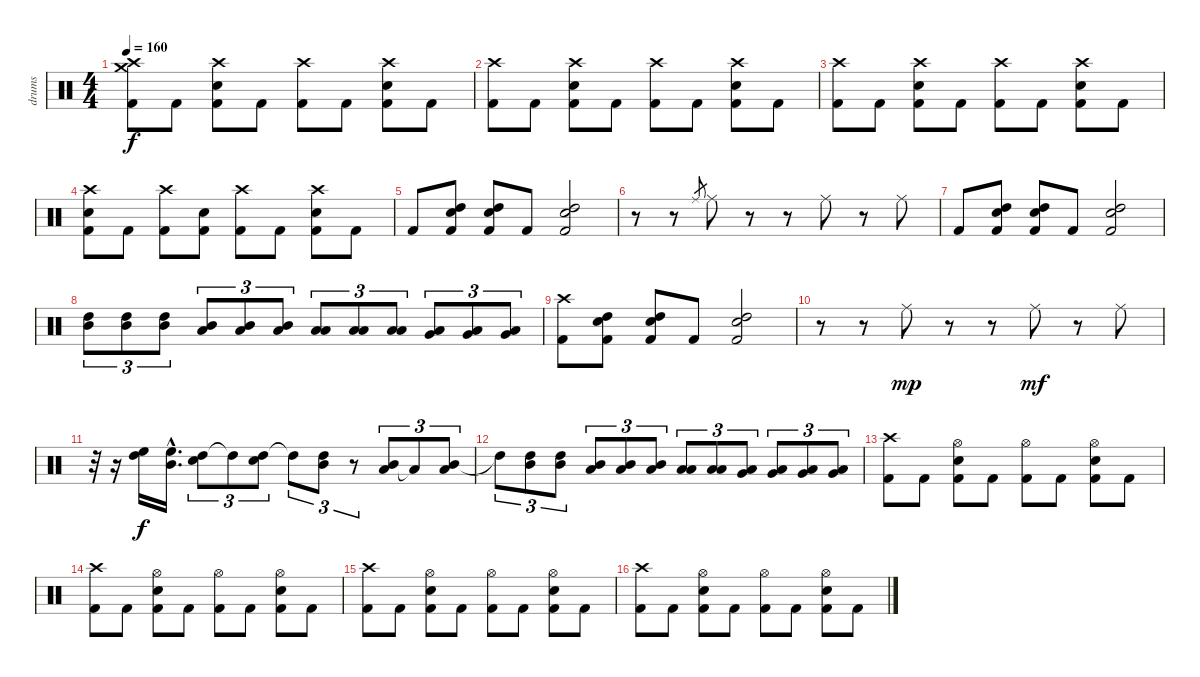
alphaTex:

\track ("drums" "drums") {instrument percussion}
\staff {score}
\articulation defaults
\ts (4 4)
\tempo 160
\clef neutral
\ks c
("Crash high (hit)" "Crash medium (hit)" "Kick (hit) 2").8{dy f} "Kick (hit) 2".8 ("Crash high (hit)" "Electric Snare (hit)" "Kick (hit) 2").8 "Kick (hit) 2".8 ("Crash high (hit)" "Kick (hit) 2").8 "Kick (hit) 2".8 ("Crash high (hit)" "Electric Snare (hit)" "Kick (hit) 2").8 "Kick (hit) 2".8 |
("Crash high (hit)" "Kick (hit) 2").8 "Kick (hit) 2".8 ("Crash high (hit)" "Electric Snare (hit)" "Kick (hit) 2").8 "Kick (hit) 2".8 ("Crash high (hit)" "Kick (hit) 2").8 "Kick (hit) 2".8 ("Crash high (hit)" "Electric Snare (hit)" "Kick (hit) 2").8 "Kick (hit) 2".8 |
("Crash high (hit)" "Kick (hit) 2").8 "Kick (hit) 2".8 ("Crash high (hit)" "Electric Snare (hit)" "Kick (hit) 2").8 "Kick (hit) 2".8 ("Crash high (hit)" "Kick (hit) 2").8 "Kick (hit) 2".8 ("Crash high (hit)" "Electric Snare (hit)" "Kick (hit) 2").8 "Kick (hit) 2".8 |
("Crash high (hit)" "Electric Snare (hit)" "Kick (hit) 2").8 "Kick (hit) 2".8 ("Crash high (hit)" "Kick (hit) 2").8 ("Electric Snare (hit)" "Kick (hit) 2").8 ("Crash high (hit)" "Kick (hit) 2").8 "Kick (hit) 2".8 ("Crash high (hit)" "Electric Snare (hit)" "Kick (hit) 2").8 "Kick (hit) 2".8 |
"Kick (hit) 2".8 ("High Tom (hit)" "Electric Snare (hit)" "Kick (hit) 2").8 ("High Tom (hit)" "Electric Snare (hit)" "Kick (hit) 2").8 "Kick (hit) 2".8 ("High Tom (hit)" "Electric Snare (hit)" "Kick (hit) 2").2 |
r.8 r.8 "Ride (middle)".8{gr} "Ride (middle)".8 r.8 r.8 "Ride (middle)".8 r.8 "Ride (middle)".8 |
"Kick (hit) 2".8 ("High Tom (hit)" "Electric Snare (hit)" "Kick (hit) 2").8 ("High Tom (hit)" "Electric Snare (hit)" "Kick (hit) 2").8 "Kick (hit) 2".8 ("High Tom (hit)" "Electric Snare (hit)" "Kick (hit) 2").2 |
("High Tom (hit)" "Mid Tom (hit)").8{tu (3 2)} ("High Tom (hit)" "Mid Tom (hit)").8{tu (3 2)} ("High Tom (hit)" "Mid Tom (hit)").8{tu (3 2)} ("Mid Tom (hit)" "Low Tom (hit)").8{tu (3 2)} ("Mid Tom (hit)" "Low Tom (hit)").8{tu (3 2)} ("Mid Tom (hit)" "Low Tom (hit)").8{tu (3 2)} ("Low Tom (hit)" "Low Tom (hit)").8{tu (3 2)} ("Low Tom (hit)" "Low Tom (hit)").8{tu (3 2)} ("Low Tom (hit)" "Low Tom (hit)").8{tu (3 2)} ("Very Low Tom (hit)" "Low Tom (hit)").8{tu (3 2)} ("Very Low Tom (hit)" "Low Tom (hit)").8{tu (3 2)} ("Very Low Tom (hit)" "Low Tom (hit)").8{tu (3 2)} |
("Crash high (hit)" "Kick (hit) 2").8 ("High Tom (hit)" "Electric Snare (hit)" "Kick (hit) 2").8 ("High Tom (hit)" "Electric Snare (hit)" "Kick (hit) 2").8 "Kick (hit) 2".8 ("High Tom (hit)" "Electric Snare (hit)" "Kick (hit) 2").2 |
r.8 r.8 "Ride (middle)".8{dy mp} r.8 r.8 "Ride (middle)".8{dy mf} r.8 "Ride (middle)".8 |
r.32 r.16 ("High Floor Tom (hit)" "High Tom (hit)").16{dy f} ("High Floor Tom (hit)"{hac} "Mid Tom (hit)"{hac}).16{d} ("High Tom (hit)" "Electric Snare (hit)").8{tu (3 2)} "High Tom (hit)"{t}.8{tu (3 2)} ("High Tom (hit)" "Electric Snare (hit)").8{tu (3 2)} "High Tom (hit)"{t}.8{tu (3 2)} ("High Tom (hit)" "Mid Tom (hit)").8{tu (3 2)} r.8{tu (3 2)} ("Mid Tom (hit)" "Low Tom (hit)").8{tu (3 2)} "Low Tom (hit)"{t}.8{tu (3 2)} ("Mid Tom (hit)" "Low Tom (hit)").8{tu (3 2)} |
"High Tom (hit)"{t}.8{tu (3 2)} ("Mid Tom (hit)" "High Tom (hit)").8{tu (3 2)} ("Mid Tom (hit)" "High Tom (hit)").8{tu (3 2)} ("Low Tom (hit)" "Mid Tom (hit)").8{tu (3 2)} ("Low Tom (hit)" "Mid Tom (hit)").8{tu (3 2)} ("Low Tom (hit)" "Mid Tom (hit)").8{tu (3 2)} ("Low Tom (hit)" "Low Tom (hit)").8{tu (3 2)} ("Low Tom (hit)" "Low Tom (hit)").8{tu (3 2)} ("Very Low Tom (hit)" "Low Tom (hit)").8{tu (3 2)} ("Very Low Tom (hit)" "Low Tom (hit)").8{tu (3 2)} ("Very Low Tom (hit)" "Low Tom (hit)").8{tu (3 2)} ("Very Low Tom (hit)" "Low Floor Tom (hit)").8{tu (3 2)} |
("Crash high (hit)" "Kick (hit) 2").8 "Kick (hit) 2".8 ("Electric Snare (hit)" "Hi-Hat (open)" "Kick (hit) 2").8 "Kick (hit) 2".8 ("Hi-Hat (open)" "Kick (hit) 2").8 "Kick (hit) 2".8 ("Electric Snare (hit)" "Hi-Hat (open)" "Kick (hit) 2").8 "Kick (hit) 2".8 |
("Crash high (hit)" "Kick (hit) 2").8 "Kick (hit) 2".8 ("Electric Snare (hit)" "Hi-Hat (open)" "Kick (hit) 2").8 "Kick (hit) 2".8 ("Hi-Hat (open)" "Kick (hit) 2").8 "Kick (hit) 2".8 ("Electric Snare (hit)" "Hi-Hat (open)" "Kick (hit) 2").8 "Kick (hit) 2".8 |
("Crash high (hit)" "Kick (hit) 2").8 "Kick (hit) 2".8 ("Electric Snare (hit)" "Hi-Hat (open)" "Kick (hit) 2").8 "Kick (hit) 2".8 ("Hi-Hat (open)" "Kick (hit) 2").8 "Kick (hit) 2".8 ("Electric Snare (hit)" "Hi-Hat (open)" "Kick (hit) 2").8 "Kick (hit) 2".8 |
("Crash high (hit)" "Kick (hit) 2").8 "Kick (hit) 2".8 ("Electric Snare (hit)" "Hi-Hat (open)" "Kick (hit) 2").8 "Kick (hit) 2".8 ("Hi-Hat (open)" "Kick (hit) 2").8 "Kick (hit) 2".8 ("Electric Snare (hit)" "Hi-Hat (open)" "Kick (hit) 2").8 "Kick (hit) 2".8
